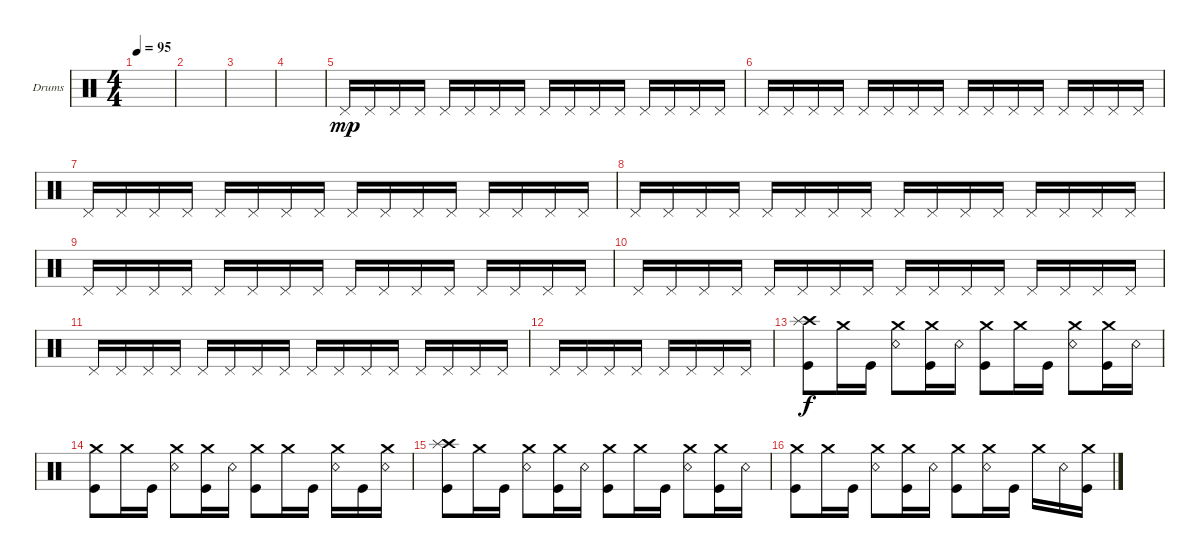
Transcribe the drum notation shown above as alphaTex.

\defaultSystemsLayout 4
\bracketExtendMode groupsimilarinstruments
\firstSystemTrackNameOrientation horizontal
\otherSystemsTrackNameOrientation horizontal
\track ("Drumkit" "Drums") {instrument percussion}
\staff {score}
\articulation defaults
\ts (4 4)
\tempo 95
\clef neutral
\ks c
|
|
|
|
"Pedal Hi-Hat (hit)".16{dy mp} "Pedal Hi-Hat (hit)".16 "Pedal Hi-Hat (hit)".16 "Pedal Hi-Hat (hit)".16 "Pedal Hi-Hat (hit)".16 "Pedal Hi-Hat (hit)".16 "Pedal Hi-Hat (hit)".16 "Pedal Hi-Hat (hit)".16 "Pedal Hi-Hat (hit)".16 "Pedal Hi-Hat (hit)".16 "Pedal Hi-Hat (hit)".16 "Pedal Hi-Hat (hit)".16 "Pedal Hi-Hat (hit)".16 "Pedal Hi-Hat (hit)".16 "Pedal Hi-Hat (hit)".16 "Pedal Hi-Hat (hit)".16 |
"Pedal Hi-Hat (hit)".16 "Pedal Hi-Hat (hit)".16 "Pedal Hi-Hat (hit)".16 "Pedal Hi-Hat (hit)".16 "Pedal Hi-Hat (hit)".16 "Pedal Hi-Hat (hit)".16 "Pedal Hi-Hat (hit)".16 "Pedal Hi-Hat (hit)".16 "Pedal Hi-Hat (hit)".16 "Pedal Hi-Hat (hit)".16 "Pedal Hi-Hat (hit)".16 "Pedal Hi-Hat (hit)".16 "Pedal Hi-Hat (hit)".16 "Pedal Hi-Hat (hit)".16 "Pedal Hi-Hat (hit)".16 "Pedal Hi-Hat (hit)".16 |
"Pedal Hi-Hat (hit)".16 "Pedal Hi-Hat (hit)".16 "Pedal Hi-Hat (hit)".16 "Pedal Hi-Hat (hit)".16 "Pedal Hi-Hat (hit)".16 "Pedal Hi-Hat (hit)".16 "Pedal Hi-Hat (hit)".16 "Pedal Hi-Hat (hit)".16 "Pedal Hi-Hat (hit)".16 "Pedal Hi-Hat (hit)".16 "Pedal Hi-Hat (hit)".16 "Pedal Hi-Hat (hit)".16 "Pedal Hi-Hat (hit)".16 "Pedal Hi-Hat (hit)".16 "Pedal Hi-Hat (hit)".16 "Pedal Hi-Hat (hit)".16 |
"Pedal Hi-Hat (hit)".16 "Pedal Hi-Hat (hit)".16 "Pedal Hi-Hat (hit)".16 "Pedal Hi-Hat (hit)".16 "Pedal Hi-Hat (hit)".16 "Pedal Hi-Hat (hit)".16 "Pedal Hi-Hat (hit)".16 "Pedal Hi-Hat (hit)".16 "Pedal Hi-Hat (hit)".16 "Pedal Hi-Hat (hit)".16 "Pedal Hi-Hat (hit)".16 "Pedal Hi-Hat (hit)".16 "Pedal Hi-Hat (hit)".16 "Pedal Hi-Hat (hit)".16 "Pedal Hi-Hat (hit)".16 "Pedal Hi-Hat (hit)".16 |
"Pedal Hi-Hat (hit)".16 "Pedal Hi-Hat (hit)".16 "Pedal Hi-Hat (hit)".16 "Pedal Hi-Hat (hit)".16 "Pedal Hi-Hat (hit)".16 "Pedal Hi-Hat (hit)".16 "Pedal Hi-Hat (hit)".16 "Pedal Hi-Hat (hit)".16 "Pedal Hi-Hat (hit)".16 "Pedal Hi-Hat (hit)".16 "Pedal Hi-Hat (hit)".16 "Pedal Hi-Hat (hit)".16 "Pedal Hi-Hat (hit)".16 "Pedal Hi-Hat (hit)".16 "Pedal Hi-Hat (hit)".16 "Pedal Hi-Hat (hit)".16 |
"Pedal Hi-Hat (hit)".16 "Pedal Hi-Hat (hit)".16 "Pedal Hi-Hat (hit)".16 "Pedal Hi-Hat (hit)".16 "Pedal Hi-Hat (hit)".16 "Pedal Hi-Hat (hit)".16 "Pedal Hi-Hat (hit)".16 "Pedal Hi-Hat (hit)".16 "Pedal Hi-Hat (hit)".16 "Pedal Hi-Hat (hit)".16 "Pedal Hi-Hat (hit)".16 "Pedal Hi-Hat (hit)".16 "Pedal Hi-Hat (hit)".16 "Pedal Hi-Hat (hit)".16 "Pedal Hi-Hat (hit)".16 "Pedal Hi-Hat (hit)".16 |
"Pedal Hi-Hat (hit)".16 "Pedal Hi-Hat (hit)".16 "Pedal Hi-Hat (hit)".16 "Pedal Hi-Hat (hit)".16 "Pedal Hi-Hat (hit)".16 "Pedal Hi-Hat (hit)".16 "Pedal Hi-Hat (hit)".16 "Pedal Hi-Hat (hit)".16 "Pedal Hi-Hat (hit)".16 "Pedal Hi-Hat (hit)".16 "Pedal Hi-Hat (hit)".16 "Pedal Hi-Hat (hit)".16 "Pedal Hi-Hat (hit)".16 "Pedal Hi-Hat (hit)".16 "Pedal Hi-Hat (hit)".16 "Pedal Hi-Hat (hit)".16 |
"Pedal Hi-Hat (hit)".16 "Pedal Hi-Hat (hit)".16 "Pedal Hi-Hat (hit)".16 "Pedal Hi-Hat (hit)".16 "Pedal Hi-Hat (hit)".16 "Pedal Hi-Hat (hit)".16 "Pedal Hi-Hat (hit)".16 "Pedal Hi-Hat (hit)".16 |
("Kick (hit)" "Crash high (hit)" "Splash (hit)").8{dy f} "Crash medium (hit)".16 "Kick (hit)".16 ("Snare (rim shot)" "Crash medium (hit)").8 ("Kick (hit)" "Crash medium (hit)").16 "Snare (rim shot)".16 ("Kick (hit)" "Crash medium (hit)").8 "Crash medium (hit)".16 "Kick (hit)".16 ("Snare (rim shot)" "Crash medium (hit)").8 ("Kick (hit)" "Crash medium (hit)").16 "Snare (rim shot)".16 |
("Kick (hit)" "Crash medium (hit)").8 "Crash medium (hit)".16 "Kick (hit)".16 ("Snare (rim shot)" "Crash medium (hit)").8 ("Kick (hit)" "Crash medium (hit)").16 "Snare (rim shot)".16 ("Kick (hit)" "Crash medium (hit)").8 "Crash medium (hit)".16 "Kick (hit)".16 ("Snare (rim shot)" "Crash medium (hit)").16 "Kick (hit)".16 ("Snare (rim shot)" "Crash medium (hit)").16 |
("Kick (hit)" "Crash high (hit)" "Splash (hit)").8 "Crash medium (hit)".16 "Kick (hit)".16 ("Snare (rim shot)" "Crash medium (hit)").8 ("Kick (hit)" "Crash medium (hit)").16 "Snare (rim shot)".16 ("Kick (hit)" "Crash medium (hit)").8 "Crash medium (hit)".16 "Kick (hit)".16 ("Snare (rim shot)" "Crash medium (hit)").8 ("Kick (hit)" "Crash medium (hit)").16 "Snare (rim shot)".16 |
("Kick (hit)" "Crash medium (hit)").8 "Crash medium (hit)".16 "Kick (hit)".16 ("Snare (rim shot)" "Crash medium (hit)").8 ("Kick (hit)" "Crash medium (hit)").16 "Snare (rim shot)".16 ("Kick (hit)" "Crash medium (hit)").8 ("Crash medium (hit)" "Snare (rim shot)").16 "Kick (hit)".16 "Crash medium (hit)".16 "Snare (rim shot)".16 ("Kick (hit)" "Crash medium (hit)").16
